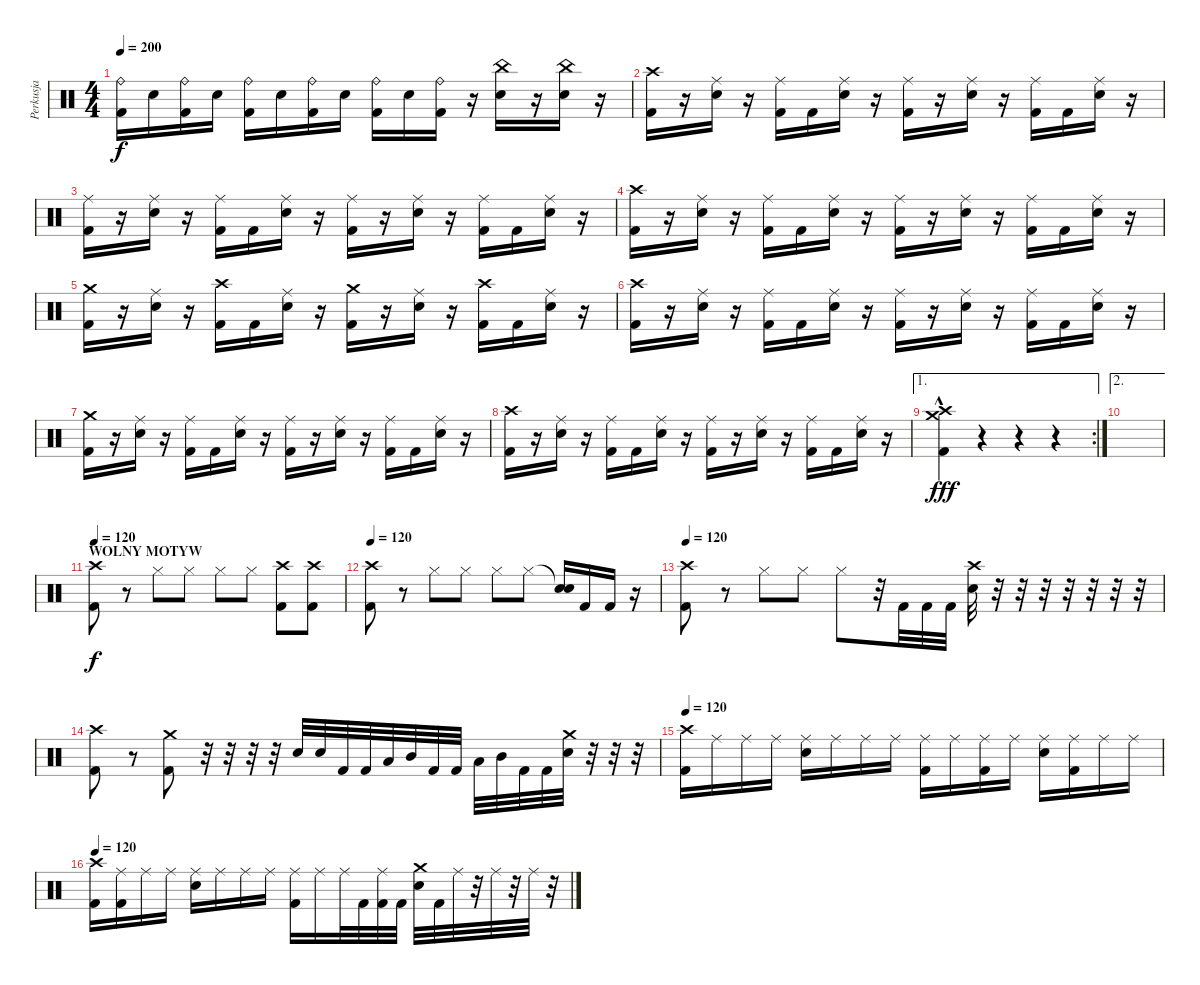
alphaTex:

\track ("Perkusja" "Perkusja") {instrument percussion}
\staff {score}
\articulation defaults
\ts (4 4)
\tempo 200
\clef neutral
\ks c
("Ride (bell)" "Kick (hit) 2").16{dy f} "Snare (hit) 2".16 ("Ride (bell)" "Kick (hit) 2").16 "Snare (hit) 2".16 ("Ride (bell)" "Kick (hit) 2").16 "Snare (hit) 2".16 ("Ride (bell)" "Kick (hit) 2").16 "Snare (hit) 2".16 ("Ride (bell)" "Kick (hit) 2").16 "Snare (hit) 2".16 ("Ride (bell)" "Kick (hit) 2").16 r.16 ("China (hit)" "Snare (hit) 2").16 r.16 ("China (hit)" "Snare (hit) 2").16 r.16 |
("Crash high (hit)" "Kick (hit) 2").16 r.16 ("Ride (middle)" "Snare (hit) 2").16 r.16 ("Ride (middle)" "Kick (hit) 2").16 "Kick (hit) 2".16 ("Ride (middle)" "Snare (hit) 2").16 r.16 ("Ride (middle)" "Kick (hit) 2").16 r.16 ("Ride (middle)" "Snare (hit) 2").16 r.16 ("Ride (middle)" "Kick (hit) 2").16 "Kick (hit) 2".16 ("Ride (middle)" "Snare (hit) 2").16 r.16 |
("Ride (middle)" "Kick (hit) 2").16 r.16 ("Ride (middle)" "Snare (hit) 2").16 r.16 ("Ride (middle)" "Kick (hit) 2").16 "Kick (hit) 2".16 ("Ride (middle)" "Snare (hit) 2").16 r.16 ("Ride (middle)" "Kick (hit) 2").16 r.16 ("Ride (middle)" "Snare (hit) 2").16 r.16 ("Ride (middle)" "Kick (hit) 2").16 "Kick (hit) 2".16 ("Ride (middle)" "Snare (hit) 2").16 r.16 |
("Crash high (hit)" "Kick (hit) 2").16 r.16 ("Ride (middle)" "Snare (hit) 2").16 r.16 ("Ride (middle)" "Kick (hit) 2").16 "Kick (hit) 2".16 ("Ride (middle)" "Snare (hit) 2").16 r.16 ("Ride (middle)" "Kick (hit) 2").16 r.16 ("Ride (middle)" "Snare (hit) 2").16 r.16 ("Ride (middle)" "Kick (hit) 2").16 "Kick (hit) 2".16 ("Ride (middle)" "Snare (hit) 2").16 r.16 |
("Crash medium (hit)" "Kick (hit) 2").16 r.16 ("Ride (middle)" "Snare (hit) 2").16 r.16 ("Crash high (hit)" "Kick (hit) 2").16 "Kick (hit) 2".16 ("Ride (middle)" "Snare (hit) 2").16 r.16 ("Crash medium (hit)" "Kick (hit) 2").16 r.16 ("Ride (middle)" "Snare (hit) 2").16 r.16 ("Crash high (hit)" "Kick (hit) 2").16 "Kick (hit) 2".16 ("Ride (middle)" "Snare (hit) 2").16 r.16 |
("Crash high (hit)" "Kick (hit) 2").16 r.16 ("Ride (middle)" "Snare (hit) 2").16 r.16 ("Ride (middle)" "Kick (hit) 2").16 "Kick (hit) 2".16 ("Ride (middle)" "Snare (hit) 2").16 r.16 ("Ride (middle)" "Kick (hit) 2").16 r.16 ("Ride (middle)" "Snare (hit) 2").16 r.16 ("Ride (middle)" "Kick (hit) 2").16 "Kick (hit) 2".16 ("Ride (middle)" "Snare (hit) 2").16 r.16 |
("Crash medium (hit)" "Kick (hit) 2").16 r.16 ("Ride (middle)" "Snare (hit) 2").16 r.16 ("Ride (middle)" "Kick (hit) 2").16 "Kick (hit) 2".16 ("Ride (middle)" "Snare (hit) 2").16 r.16 ("Ride (middle)" "Kick (hit) 2").16 r.16 ("Ride (middle)" "Snare (hit) 2").16 r.16 ("Ride (middle)" "Kick (hit) 2").16 "Kick (hit) 2".16 ("Ride (middle)" "Snare (hit) 2").16 r.16 |
("Crash high (hit)" "Kick (hit) 2").16 r.16 ("Ride (middle)" "Snare (hit) 2").16 r.16 ("Ride (middle)" "Kick (hit) 2").16 "Kick (hit) 2".16 ("Ride (middle)" "Snare (hit) 2").16 r.16 ("Ride (middle)" "Kick (hit) 2").16 r.16 ("Ride (middle)" "Snare (hit) 2").16 r.16 ("Ride (middle)" "Kick (hit) 2").16 "Kick (hit) 2".16 ("Ride (middle)" "Snare (hit) 2").16 r.16 |
\ae 1
\rc 2
("Crash high (hit)"{hac} "Crash medium (hit)"{hac} "Kick (hit) 2").4{dy fff} r.4 r.4 r.4 |
\ae 2
|
\section ("" "WOLNY MOTYW")
\tempo 120
("Crash high (hit)" "Kick (hit) 2").8{dy f} r.8 "Hi-Hat (closed)".8 "Hi-Hat (closed)".8 "Hi-Hat (closed)".8 "Hi-Hat (closed)".8 ("Crash high (hit)" "Kick (hit) 2").8 ("Crash high (hit)" "Kick (hit) 2").8 |
\tempo 120
("Crash high (hit)" "Kick (hit) 2").8 r.8 "Hi-Hat (closed)".8 "Hi-Hat (closed)".8 "Hi-Hat (closed)".8 "Hi-Hat (closed)".8 ("Snare (hit)"{t} "Snare (hit) 2").16 "Kick (hit) 2".16 "Kick (hit) 2".16 r.16 |
\tempo 120
("Crash high (hit)" "Kick (hit) 2").8 r.8 "Hi-Hat (closed)".8 "Hi-Hat (closed)".8 "Hi-Hat (closed)".8 r.32 "Kick (hit) 2".32 "Kick (hit) 2".32 "Kick (hit) 2".32 ("Crash high (hit)" "Snare (hit) 2").32 r.32 r.32 r.32 r.32 r.32 r.32 r.32 |
("Crash high (hit)" "Kick (hit) 2").8 r.8 ("Crash medium (hit)" "Kick (hit) 2").8 r.32 r.32 r.32 r.32 "Snare (hit) 2".32 "Snare (hit) 2".32 "Kick (hit) 2".32 "Kick (hit) 2".32 "Low Tom (hit)".32 "Mid Tom (hit)".32 "Kick (hit) 2".32 "Kick (hit) 2".32 "Low Tom (hit)".32 "Mid Tom (hit)".32 "Kick (hit) 2".32 "Kick (hit) 2".32 ("Crash medium (hit)" "Snare (hit) 2").32 r.32 r.32 r.32 |
\tempo 120
("Crash high (hit)" "Kick (hit) 2").16 "Ride (middle)".16 "Ride (middle)".16 "Ride (middle)".16 ("Ride (middle)" "Snare (hit) 2").16 "Ride (middle)".16 "Ride (middle)".16 "Ride (middle)".16 ("Ride (middle)" "Kick (hit) 2").16 "Ride (middle)".16 ("Ride (middle)" "Kick (hit) 2").16 "Ride (middle)".16 ("Ride (middle)" "Snare (hit) 2").16 ("Ride (middle)" "Kick (hit) 2").16 "Ride (middle)".16 "Ride (middle)".16 |
\tempo 120
("Crash high (hit)" "Kick (hit) 2").16 ("Ride (middle)" "Kick (hit) 2").16 "Ride (middle)".16 "Ride (middle)".16 ("Ride (middle)" "Snare (hit) 2").16 "Ride (middle)".16 "Ride (middle)".16 "Ride (middle)".16 ("Ride (middle)" "Kick (hit) 2").16 "Ride (middle)".16 "Ride (middle)".32 "Kick (hit) 2".32 ("Ride (middle)" "Kick (hit) 2").32 "Kick (hit) 2".32 ("Crash medium (hit)" "Snare (hit) 2").32 "Kick (hit) 2".32 "Ride (middle)".32 r.32 "Ride (middle)".32 r.32 "Ride (middle)".32 r.32
